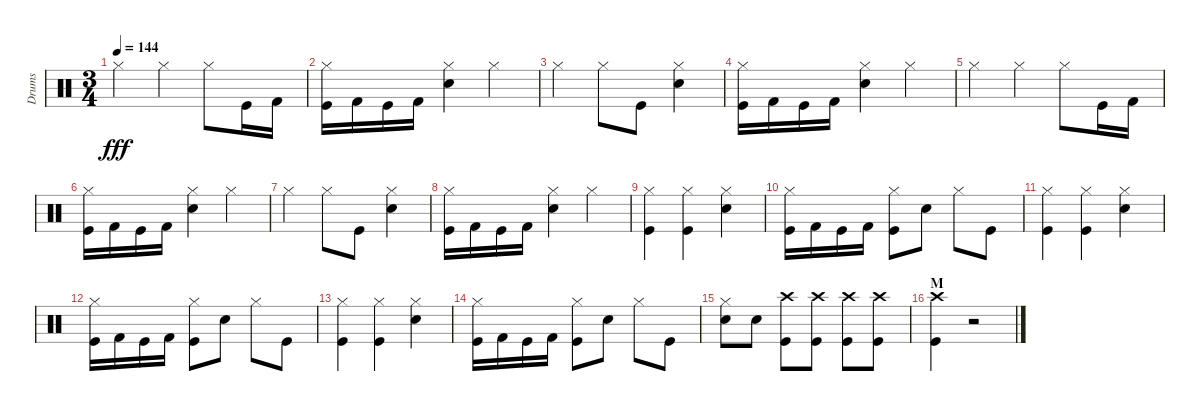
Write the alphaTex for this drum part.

\track ("Drums" "Drums") {instrument percussion}
\staff {score}
\articulation defaults
\ts (3 4)
\tempo 144
\clef neutral
\ks c "Hi-Hat (closed)".4{dy fff} "Hi-Hat (closed)".4 "Hi-Hat (closed)".8 "Kick (hit)".16 "Kick (hit) 2".16
|
("Hi-Hat (closed)" "Kick (hit)").16 "Kick (hit) 2".16 "Kick (hit)".16 "Kick (hit) 2".16 ("Hi-Hat (closed)" "Snare (hit) 2").4 "Hi-Hat (closed)".4 |
"Hi-Hat (closed)".4 "Hi-Hat (closed)".8 "Kick (hit)".8 ("Hi-Hat (closed)" "Snare (hit) 2").4 |
("Hi-Hat (closed)" "Kick (hit)").16 "Kick (hit) 2".16 "Kick (hit)".16 "Kick (hit) 2".16 ("Hi-Hat (closed)" "Snare (hit) 2").4 "Hi-Hat (closed)".4 |
"Hi-Hat (closed)".4 "Hi-Hat (closed)".4 "Hi-Hat (closed)".8 "Kick (hit)".16 "Kick (hit) 2".16 |
("Hi-Hat (closed)" "Kick (hit)").16 "Kick (hit) 2".16 "Kick (hit)".16 "Kick (hit) 2".16 ("Hi-Hat (closed)" "Snare (hit) 2").4 "Hi-Hat (closed)".4 |
"Hi-Hat (closed)".4 "Hi-Hat (closed)".8 "Kick (hit)".8 ("Hi-Hat (closed)" "Snare (hit) 2").4 |
("Hi-Hat (closed)" "Kick (hit)").16 "Kick (hit) 2".16 "Kick (hit)".16 "Kick (hit) 2".16 ("Hi-Hat (closed)" "Snare (hit) 2").4 "Hi-Hat (closed)".4 |
("Hi-Hat (closed)" "Kick (hit)").4 ("Hi-Hat (closed)" "Kick (hit)").4 ("Hi-Hat (closed)" "Snare (hit) 2").4 |
("Hi-Hat (closed)" "Kick (hit)").16 "Kick (hit) 2".16 "Kick (hit)".16 "Kick (hit) 2".16 ("Hi-Hat (closed)" "Kick (hit)").8 "Snare (hit) 2".8 "Hi-Hat (closed)".8 "Kick (hit)".8 |
("Hi-Hat (closed)" "Kick (hit)").4 ("Hi-Hat (closed)" "Kick (hit)").4 ("Hi-Hat (closed)" "Snare (hit) 2").4 |
("Hi-Hat (closed)" "Kick (hit)").16 "Kick (hit) 2".16 "Kick (hit)".16 "Kick (hit) 2".16 ("Hi-Hat (closed)" "Kick (hit)").8 "Snare (hit) 2".8 "Hi-Hat (closed)".8 "Kick (hit)".8 |
("Hi-Hat (closed)" "Kick (hit)").4 ("Hi-Hat (closed)" "Kick (hit)").4 ("Hi-Hat (closed)" "Snare (hit) 2").4 |
("Hi-Hat (closed)" "Kick (hit)").16 "Kick (hit) 2".16 "Kick (hit)".16 "Kick (hit) 2".16 ("Hi-Hat (closed)" "Kick (hit)").8 "Snare (hit) 2".8 "Hi-Hat (closed)".8 "Kick (hit)".8 |
("Hi-Hat (closed)" "Snare (hit) 2").8 "Snare (hit) 2".8 ("Crash high (hit)" "Kick (hit)").8 ("Crash high (hit)" "Kick (hit)").8 ("Crash high (hit)" "Kick (hit)").8 ("Crash high (hit)" "Kick (hit)").8 |
\section ("" "M")
("Crash high (hit)" "Kick (hit)").4 r.2
